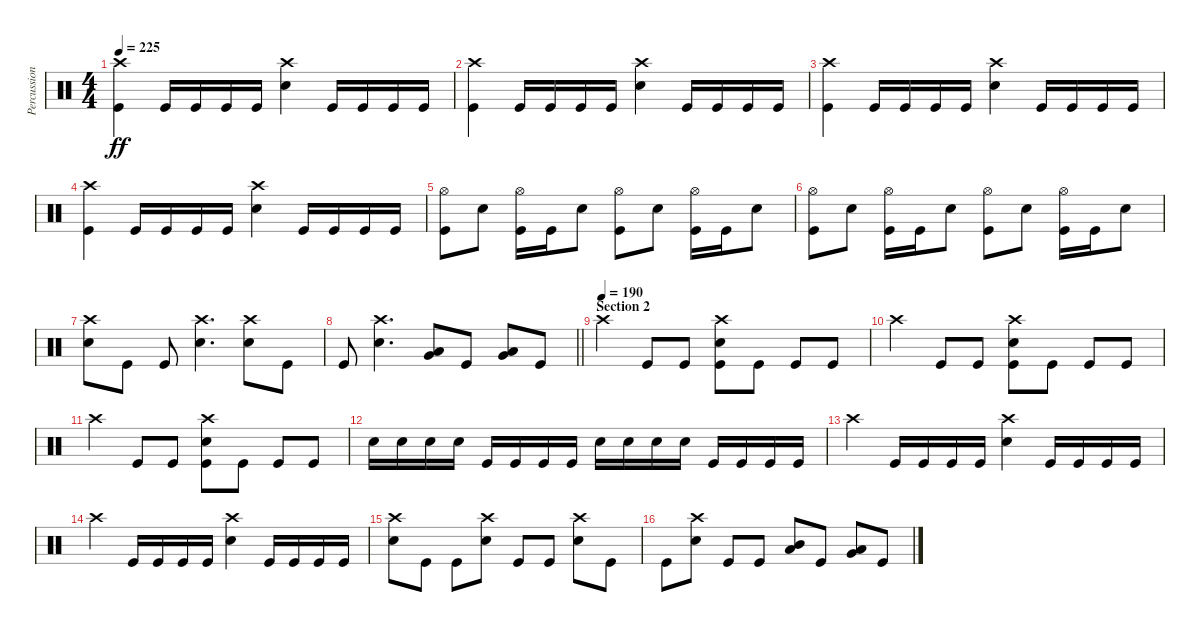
\track ("Percussion" "Percussion") {instrument percussion}
\staff {score}
\articulation defaults
\ts (4 4)
\tempo 225
\clef neutral
\ks c
("Crash high (hit)" "Kick (hit)").4{dy ff} "Kick (hit)".16 "Kick (hit)".16 "Kick (hit)".16 "Kick (hit)".16 ("Snare (hit) 2" "Crash high (hit)").4 "Kick (hit)".16 "Kick (hit)".16 "Kick (hit)".16 "Kick (hit)".16 |
("Crash high (hit)" "Kick (hit)").4 "Kick (hit)".16 "Kick (hit)".16 "Kick (hit)".16 "Kick (hit)".16 ("Snare (hit) 2" "Crash high (hit)").4 "Kick (hit)".16 "Kick (hit)".16 "Kick (hit)".16 "Kick (hit)".16 |
("Crash high (hit)" "Kick (hit)").4 "Kick (hit)".16 "Kick (hit)".16 "Kick (hit)".16 "Kick (hit)".16 ("Snare (hit) 2" "Crash high (hit)").4 "Kick (hit)".16 "Kick (hit)".16 "Kick (hit)".16 "Kick (hit)".16 |
("Crash high (hit)" "Kick (hit)").4 "Kick (hit)".16 "Kick (hit)".16 "Kick (hit)".16 "Kick (hit)".16 ("Snare (hit) 2" "Crash high (hit)").4 "Kick (hit)".16 "Kick (hit)".16 "Kick (hit)".16 "Kick (hit)".16 |
("Hi-Hat (open)" "Kick (hit)").8 "Snare (hit) 2".8 ("Hi-Hat (open)" "Kick (hit)").16 "Kick (hit)".16 "Snare (hit) 2".8 ("Hi-Hat (open)" "Kick (hit)").8 "Snare (hit) 2".8 ("Hi-Hat (open)" "Kick (hit)").16 "Kick (hit)".16 "Snare (hit) 2".8 |
("Hi-Hat (open)" "Kick (hit)").8 "Snare (hit) 2".8 ("Hi-Hat (open)" "Kick (hit)").16 "Kick (hit)".16 "Snare (hit) 2".8 ("Hi-Hat (open)" "Kick (hit)").8 "Snare (hit) 2".8 ("Hi-Hat (open)" "Kick (hit)").16 "Kick (hit)".16 "Snare (hit) 2".8 |
("Crash high (hit)" "Snare (hit) 2").8 "Kick (hit)".8 "Kick (hit)".8 ("Snare (hit) 2" "Crash high (hit)").4{d} ("Crash high (hit)" "Snare (hit) 2").8 "Kick (hit)".8 |
\barLineRight lightlight "Kick (hit)".8
("Snare (hit) 2" "Crash high (hit)").4{d} ("Very Low Tom (hit)" "Low Tom (hit)").8 "Kick (hit)".8 ("Low Floor Tom (hit)" "Very Low Tom (hit)").8 "Kick (hit)".8 |
\section ("" "Section 2")
\tempo (190)
"Crash high (hit)".4 "Kick (hit)".8 "Kick (hit)".8 ("Snare (hit) 2" "Crash high (hit)" "Kick (hit)").8 "Kick (hit)".8 "Kick (hit)".8 "Kick (hit)".8 |
"Crash high (hit)".4 "Kick (hit)".8 "Kick (hit)".8 ("Snare (hit) 2" "Crash high (hit)" "Kick (hit)").8 "Kick (hit)".8 "Kick (hit)".8 "Kick (hit)".8 |
"Crash high (hit)".4 "Kick (hit)".8 "Kick (hit)".8 ("Snare (hit) 2" "Crash high (hit)" "Kick (hit)").8 "Kick (hit)".8 "Kick (hit)".8 "Kick (hit)".8 |
"Snare (hit) 2".16 "Snare (hit) 2".16 "Snare (hit) 2".16 "Snare (hit) 2".16 "Kick (hit)".16 "Kick (hit)".16 "Kick (hit)".16 "Kick (hit)".16 "Snare (hit) 2".16 "Snare (hit) 2".16 "Snare (hit) 2".16 "Snare (hit) 2".16 "Kick (hit)".16 "Kick (hit)".16 "Kick (hit)".16 "Kick (hit)".16 |
"Crash high (hit)".4 "Kick (hit)".16 "Kick (hit)".16 "Kick (hit)".16 "Kick (hit)".16 ("Snare (hit) 2" "Crash high (hit)").4 "Kick (hit)".16 "Kick (hit)".16 "Kick (hit)".16 "Kick (hit)".16 |
"Crash high (hit)".4 "Kick (hit)".16 "Kick (hit)".16 "Kick (hit)".16 "Kick (hit)".16 ("Snare (hit) 2" "Crash high (hit)").4 "Kick (hit)".16 "Kick (hit)".16 "Kick (hit)".16 "Kick (hit)".16 |
("Crash high (hit)" "Snare (hit) 2").8 "Kick (hit)".8 "Kick (hit)".8 ("Crash high (hit)" "Snare (hit) 2").8 "Kick (hit)".8 "Kick (hit)".8 ("Crash high (hit)" "Snare (hit) 2").8 "Kick (hit)".8 |
"Kick (hit)".8 ("Crash high (hit)" "Snare (hit) 2").8 "Kick (hit)".8 "Kick (hit)".8 ("Low Tom (hit)" "Mid Tom (hit)").8 "Kick (hit)".8 ("Very Low Tom (hit)" "Low Floor Tom (hit)").8 "Kick (hit)".8
